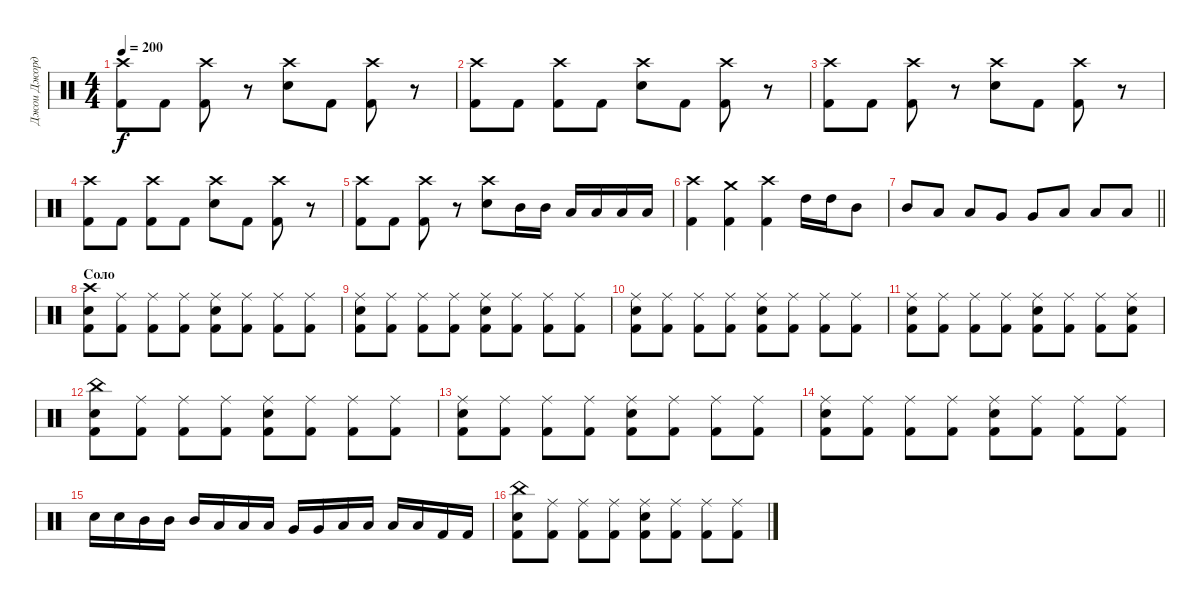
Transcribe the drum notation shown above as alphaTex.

\track ("Джои Джордисон" "Джои Джорд") {instrument percussion}
\staff {score}
\articulation defaults
\ts (4 4)
\tempo 200
\clef neutral
\ks c
("Crash high (hit)" "Kick (hit) 2").8{dy f} "Kick (hit) 2".8 ("Crash high (hit)" "Kick (hit) 2").8 r.8 ("Crash high (hit)" "Electric Snare (hit)").8 "Kick (hit) 2".8 ("Crash high (hit)" "Kick (hit) 2").8 r.8 |
("Crash high (hit)" "Kick (hit) 2").8 "Kick (hit) 2".8 ("Crash high (hit)" "Kick (hit) 2").8 "Kick (hit) 2".8 ("Crash high (hit)" "Electric Snare (hit)").8 "Kick (hit) 2".8 ("Crash high (hit)" "Kick (hit) 2").8 r.8 |
("Crash high (hit)" "Kick (hit) 2").8 "Kick (hit) 2".8 ("Crash high (hit)" "Kick (hit) 2").8 r.8 ("Crash high (hit)" "Electric Snare (hit)").8 "Kick (hit) 2".8 ("Crash high (hit)" "Kick (hit) 2").8 r.8 |
("Crash high (hit)" "Kick (hit) 2").8 "Kick (hit) 2".8 ("Crash high (hit)" "Kick (hit) 2").8 "Kick (hit) 2".8 ("Crash high (hit)" "Electric Snare (hit)").8 "Kick (hit) 2".8 ("Crash high (hit)" "Kick (hit) 2").8 r.8 |
("Crash high (hit)" "Kick (hit) 2").8 "Kick (hit) 2".8 ("Crash high (hit)" "Kick (hit) 2").8 r.8 ("Crash high (hit)" "Electric Snare (hit)").8 "Mid Tom (hit)".16 "Mid Tom (hit)".16 "Low Tom (hit)".16 "Low Tom (hit)".16 "Low Floor Tom (hit)".16 "Low Floor Tom (hit)".16 |
("Crash high (hit)" "Kick (hit) 2").4 ("Crash medium (hit)" "Kick (hit) 2").4 ("Crash high (hit)" "Kick (hit) 2").4 "High Tom (hit)".16 "High Tom (hit)".16 "Mid Tom (hit)".8 |
\barLineRight lightlight "Mid Tom (hit)".8 "Low Tom (hit)".8 "Low Tom (hit)".8 "Very Low Tom (hit)".8 "Very Low Tom (hit)".8 "Low Floor Tom (hit)".8 "Low Floor Tom (hit)".8 "Low Floor Tom (hit)".8
|
\section ("" "Соло")
("Crash high (hit)" "Electric Snare (hit)" "Kick (hit) 2").8 ("Ride (middle)" "Kick (hit) 2").8 ("Ride (middle)" "Kick (hit) 2").8 ("Ride (middle)" "Kick (hit) 2").8 ("Ride (middle)" "Electric Snare (hit)" "Kick (hit) 2").8 ("Ride (middle)" "Kick (hit) 2").8 ("Ride (middle)" "Kick (hit) 2").8 ("Ride (middle)" "Kick (hit) 2").8 |
("Ride (middle)" "Electric Snare (hit)" "Kick (hit) 2").8 ("Ride (middle)" "Kick (hit) 2").8 ("Ride (middle)" "Kick (hit) 2").8 ("Ride (middle)" "Kick (hit) 2").8 ("Ride (middle)" "Electric Snare (hit)" "Kick (hit) 2").8 ("Ride (middle)" "Kick (hit) 2").8 ("Ride (middle)" "Kick (hit) 2").8 ("Ride (middle)" "Kick (hit) 2").8 |
("Ride (middle)" "Electric Snare (hit)" "Kick (hit) 2").8 ("Ride (middle)" "Kick (hit) 2").8 ("Ride (middle)" "Kick (hit) 2").8 ("Ride (middle)" "Kick (hit) 2").8 ("Ride (middle)" "Electric Snare (hit)" "Kick (hit) 2").8 ("Ride (middle)" "Kick (hit) 2").8 ("Ride (middle)" "Kick (hit) 2").8 ("Ride (middle)" "Kick (hit) 2").8 |
("Ride (middle)" "Electric Snare (hit)" "Kick (hit) 2").8 ("Ride (middle)" "Kick (hit) 2").8 ("Ride (middle)" "Kick (hit) 2").8 ("Ride (middle)" "Kick (hit) 2").8 ("Ride (middle)" "Electric Snare (hit)" "Kick (hit) 2").8 ("Ride (middle)" "Kick (hit) 2").8 ("Ride (middle)" "Kick (hit) 2").8 ("Ride (middle)" "Electric Snare (hit)" "Kick (hit) 2").8 |
("China (hit)" "Electric Snare (hit)" "Kick (hit) 2").8 ("Ride (middle)" "Kick (hit) 2").8 ("Ride (middle)" "Kick (hit) 2").8 ("Ride (middle)" "Kick (hit) 2").8 ("Ride (middle)" "Electric Snare (hit)" "Kick (hit) 2").8 ("Ride (middle)" "Kick (hit) 2").8 ("Ride (middle)" "Kick (hit) 2").8 ("Ride (middle)" "Kick (hit) 2").8 |
("Ride (middle)" "Electric Snare (hit)" "Kick (hit) 2").8 ("Ride (middle)" "Kick (hit) 2").8 ("Ride (middle)" "Kick (hit) 2").8 ("Ride (middle)" "Kick (hit) 2").8 ("Ride (middle)" "Electric Snare (hit)" "Kick (hit) 2").8 ("Ride (middle)" "Kick (hit) 2").8 ("Ride (middle)" "Kick (hit) 2").8 ("Ride (middle)" "Kick (hit) 2").8 |
("Ride (middle)" "Electric Snare (hit)" "Kick (hit) 2").8 ("Ride (middle)" "Kick (hit) 2").8 ("Ride (middle)" "Kick (hit) 2").8 ("Ride (middle)" "Kick (hit) 2").8 ("Ride (middle)" "Electric Snare (hit)" "Kick (hit) 2").8 ("Ride (middle)" "Kick (hit) 2").8 ("Ride (middle)" "Kick (hit) 2").8 ("Ride (middle)" "Kick (hit) 2").8 |
"Electric Snare (hit)".16 "Electric Snare (hit)".16 "Mid Tom (hit)".16 "Mid Tom (hit)".16 "Mid Tom (hit)".16 "Low Tom (hit)".16 "Low Tom (hit)".16 "Low Tom (hit)".16 "Very Low Tom (hit)".16 "Very Low Tom (hit)".16 "Low Floor Tom (hit)".16 "Low Floor Tom (hit)".16 "Low Floor Tom (hit)".16 "Low Floor Tom (hit)".16 "Kick (hit) 2".16 "Kick (hit) 2".16 |
("China (hit)" "Electric Snare (hit)" "Kick (hit) 2").8 ("Ride (middle)" "Kick (hit) 2").8 ("Ride (middle)" "Kick (hit) 2").8 ("Ride (middle)" "Kick (hit) 2").8 ("Ride (middle)" "Electric Snare (hit)" "Kick (hit) 2").8 ("Ride (middle)" "Kick (hit) 2").8 ("Ride (middle)" "Kick (hit) 2").8 ("Ride (middle)" "Kick (hit) 2").8
